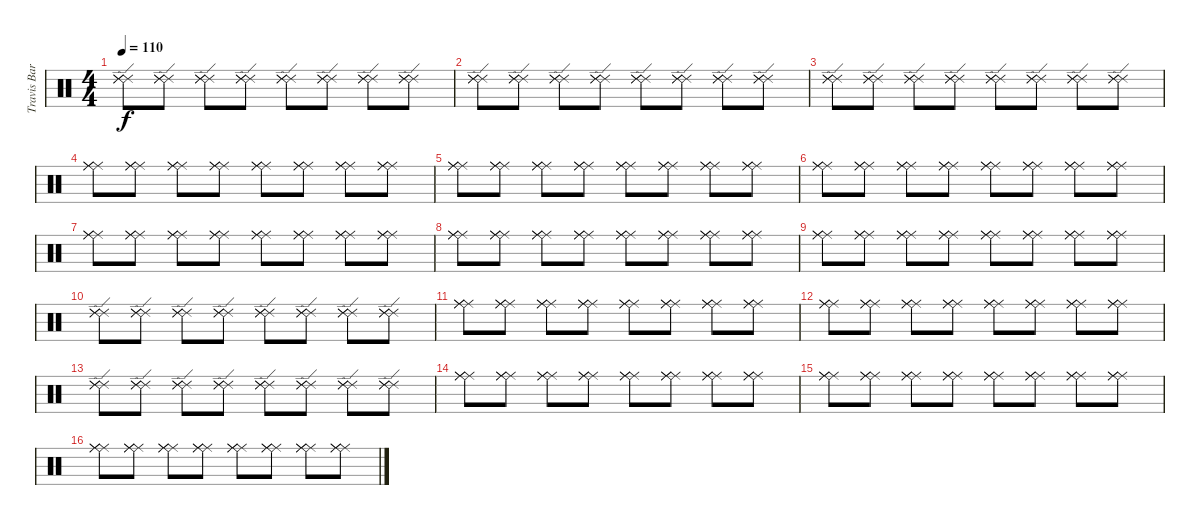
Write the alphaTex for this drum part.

\track ("Travis Barker - Drums" "Travis Bar") {instrument percussion}
\staff {score}
\articulation defaults
\ts (4 4)
\tempo 110
\tempo 140
\tempo 110
\clef neutral
\ks c
("Ride (edge) 2" "Ride (edge) 2" "Ride (edge) 2").8{dy f} ("Ride (edge) 2" "Ride (edge) 2" "Ride (edge) 2").8 ("Ride (edge) 2" "Ride (edge) 2" "Ride (edge) 2").8 ("Ride (edge) 2" "Ride (edge) 2" "Ride (edge) 2").8 ("Ride (edge) 2" "Ride (edge) 2" "Ride (edge) 2").8 ("Ride (edge) 2" "Ride (edge) 2" "Ride (edge) 2").8 ("Ride (edge) 2" "Ride (edge) 2" "Ride (edge) 2").8 ("Ride (edge) 2" "Ride (edge) 2" "Ride (edge) 2").8 |
("Ride (edge) 2" "Ride (edge) 2" "Ride (edge) 2").8 ("Ride (edge) 2" "Ride (edge) 2" "Ride (edge) 2").8 ("Ride (edge) 2" "Ride (edge) 2" "Ride (edge) 2").8 ("Ride (edge) 2" "Ride (edge) 2" "Ride (edge) 2").8 ("Ride (edge) 2" "Ride (edge) 2" "Ride (edge) 2").8 ("Ride (edge) 2" "Ride (edge) 2" "Ride (edge) 2").8 ("Ride (edge) 2" "Ride (edge) 2" "Ride (edge) 2").8 ("Ride (edge) 2" "Ride (edge) 2" "Ride (edge) 2").8 |
("Ride (edge) 2" "Ride (edge) 2" "Ride (edge) 2").8 ("Ride (edge) 2" "Ride (edge) 2" "Ride (edge) 2").8 ("Ride (edge) 2" "Ride (edge) 2" "Ride (edge) 2").8 ("Ride (edge) 2" "Ride (edge) 2" "Ride (edge) 2").8 ("Ride (edge) 2" "Ride (edge) 2" "Ride (edge) 2").8 ("Ride (edge) 2" "Ride (edge) 2" "Ride (edge) 2").8 ("Ride (edge) 2" "Ride (edge) 2" "Ride (edge) 2").8 ("Ride (edge) 2" "Ride (edge) 2" "Ride (edge) 2").8 |
("Ride (middle)" "Ride (middle)" "Ride (middle)").8 ("Ride (middle)" "Ride (middle)" "Ride (middle)").8 ("Ride (middle)" "Ride (middle)" "Ride (middle)").8 ("Ride (middle)" "Ride (middle)" "Ride (middle)").8 ("Ride (middle)" "Ride (middle)" "Ride (middle)").8 ("Ride (middle)" "Ride (middle)" "Ride (middle)").8 ("Ride (middle)" "Ride (middle)" "Ride (middle)").8 ("Ride (middle)" "Ride (middle)" "Ride (middle)").8 |
("Ride (middle)" "Ride (middle)" "Ride (middle)").8 ("Ride (middle)" "Ride (middle)" "Ride (middle)").8 ("Ride (middle)" "Ride (middle)" "Ride (middle)").8 ("Ride (middle)" "Ride (middle)" "Ride (middle)").8 ("Ride (middle)" "Ride (middle)" "Ride (middle)").8 ("Ride (middle)" "Ride (middle)" "Ride (middle)").8 ("Ride (middle)" "Ride (middle)" "Ride (middle)").8 ("Ride (middle)" "Ride (middle)" "Ride (middle)").8 |
("Ride (middle)" "Ride (middle)" "Ride (middle)").8 ("Ride (middle)" "Ride (middle)" "Ride (middle)").8 ("Ride (middle)" "Ride (middle)" "Ride (middle)").8 ("Ride (middle)" "Ride (middle)" "Ride (middle)").8 ("Ride (middle)" "Ride (middle)" "Ride (middle)").8 ("Ride (middle)" "Ride (middle)" "Ride (middle)").8 ("Ride (middle)" "Ride (middle)" "Ride (middle)").8 ("Ride (middle)" "Ride (middle)" "Ride (middle)").8 |
("Ride (middle)" "Ride (middle)" "Ride (middle)").8 ("Ride (middle)" "Ride (middle)" "Ride (middle)").8 ("Ride (middle)" "Ride (middle)" "Ride (middle)").8 ("Ride (middle)" "Ride (middle)" "Ride (middle)").8 ("Ride (middle)" "Ride (middle)" "Ride (middle)").8 ("Ride (middle)" "Ride (middle)" "Ride (middle)").8 ("Ride (middle)" "Ride (middle)" "Ride (middle)").8 ("Ride (middle)" "Ride (middle)" "Ride (middle)").8 |
("Ride (middle)" "Ride (middle)" "Ride (middle)").8 ("Ride (middle)" "Ride (middle)" "Ride (middle)").8 ("Ride (middle)" "Ride (middle)" "Ride (middle)").8 ("Ride (middle)" "Ride (middle)" "Ride (middle)").8 ("Ride (middle)" "Ride (middle)" "Ride (middle)").8 ("Ride (middle)" "Ride (middle)" "Ride (middle)").8 ("Ride (middle)" "Ride (middle)" "Ride (middle)").8 ("Ride (middle)" "Ride (middle)" "Ride (middle)").8 |
("Ride (middle)" "Ride (middle)" "Ride (middle)").8 ("Ride (middle)" "Ride (middle)" "Ride (middle)").8 ("Ride (middle)" "Ride (middle)" "Ride (middle)").8 ("Ride (middle)" "Ride (middle)" "Ride (middle)").8 ("Ride (middle)" "Ride (middle)" "Ride (middle)").8 ("Ride (middle)" "Ride (middle)" "Ride (middle)").8 ("Ride (middle)" "Ride (middle)" "Ride (middle)").8 ("Ride (middle)" "Ride (middle)" "Ride (middle)").8 |
("Ride (edge) 2" "Ride (edge) 2" "Ride (edge) 2").8 ("Ride (edge) 2" "Ride (edge) 2" "Ride (edge) 2").8 ("Ride (edge) 2" "Ride (edge) 2" "Ride (edge) 2").8 ("Ride (edge) 2" "Ride (edge) 2" "Ride (edge) 2").8 ("Ride (edge) 2" "Ride (edge) 2" "Ride (edge) 2").8 ("Ride (edge) 2" "Ride (edge) 2" "Ride (edge) 2").8 ("Ride (edge) 2" "Ride (edge) 2" "Ride (edge) 2").8 ("Ride (edge) 2" "Ride (edge) 2" "Ride (edge) 2").8 |
("Ride (middle)" "Ride (middle)" "Ride (middle)").8 ("Ride (middle)" "Ride (middle)" "Ride (middle)").8 ("Ride (middle)" "Ride (middle)" "Ride (middle)").8 ("Ride (middle)" "Ride (middle)" "Ride (middle)").8 ("Ride (middle)" "Ride (middle)" "Ride (middle)").8 ("Ride (middle)" "Ride (middle)" "Ride (middle)").8 ("Ride (middle)" "Ride (middle)" "Ride (middle)").8 ("Ride (middle)" "Ride (middle)" "Ride (middle)").8 |
("Ride (middle)" "Ride (middle)" "Ride (middle)").8 ("Ride (middle)" "Ride (middle)" "Ride (middle)").8 ("Ride (middle)" "Ride (middle)" "Ride (middle)").8 ("Ride (middle)" "Ride (middle)" "Ride (middle)").8 ("Ride (middle)" "Ride (middle)" "Ride (middle)").8 ("Ride (middle)" "Ride (middle)" "Ride (middle)").8 ("Ride (middle)" "Ride (middle)" "Ride (middle)").8 ("Ride (middle)" "Ride (middle)" "Ride (middle)").8 |
("Ride (edge) 2" "Ride (edge) 2" "Ride (edge) 2").8 ("Ride (edge) 2" "Ride (edge) 2" "Ride (edge) 2").8 ("Ride (edge) 2" "Ride (edge) 2" "Ride (edge) 2").8 ("Ride (edge) 2" "Ride (edge) 2" "Ride (edge) 2").8 ("Ride (edge) 2" "Ride (edge) 2" "Ride (edge) 2").8 ("Ride (edge) 2" "Ride (edge) 2" "Ride (edge) 2").8 ("Ride (edge) 2" "Ride (edge) 2" "Ride (edge) 2").8 ("Ride (edge) 2" "Ride (edge) 2" "Ride (edge) 2").8 |
("Ride (middle)" "Ride (middle)" "Ride (middle)").8 ("Ride (middle)" "Ride (middle)" "Ride (middle)").8 ("Ride (middle)" "Ride (middle)" "Ride (middle)").8 ("Ride (middle)" "Ride (middle)" "Ride (middle)").8 ("Ride (middle)" "Ride (middle)" "Ride (middle)").8 ("Ride (middle)" "Ride (middle)" "Ride (middle)").8 ("Ride (middle)" "Ride (middle)" "Ride (middle)").8 ("Ride (middle)" "Ride (middle)" "Ride (middle)").8 |
("Ride (middle)" "Ride (middle)" "Ride (middle)").8 ("Ride (middle)" "Ride (middle)" "Ride (middle)").8 ("Ride (middle)" "Ride (middle)" "Ride (middle)").8 ("Ride (middle)" "Ride (middle)" "Ride (middle)").8 ("Ride (middle)" "Ride (middle)" "Ride (middle)").8 ("Ride (middle)" "Ride (middle)" "Ride (middle)").8 ("Ride (middle)" "Ride (middle)" "Ride (middle)").8 ("Ride (middle)" "Ride (middle)" "Ride (middle)").8 |
("Ride (middle)" "Ride (middle)" "Ride (middle)").8 ("Ride (middle)" "Ride (middle)" "Ride (middle)").8 ("Ride (middle)" "Ride (middle)" "Ride (middle)").8 ("Ride (middle)" "Ride (middle)" "Ride (middle)").8 ("Ride (middle)" "Ride (middle)" "Ride (middle)").8 ("Ride (middle)" "Ride (middle)" "Ride (middle)").8 ("Ride (middle)" "Ride (middle)" "Ride (middle)").8 ("Ride (middle)" "Ride (middle)" "Ride (middle)").8
